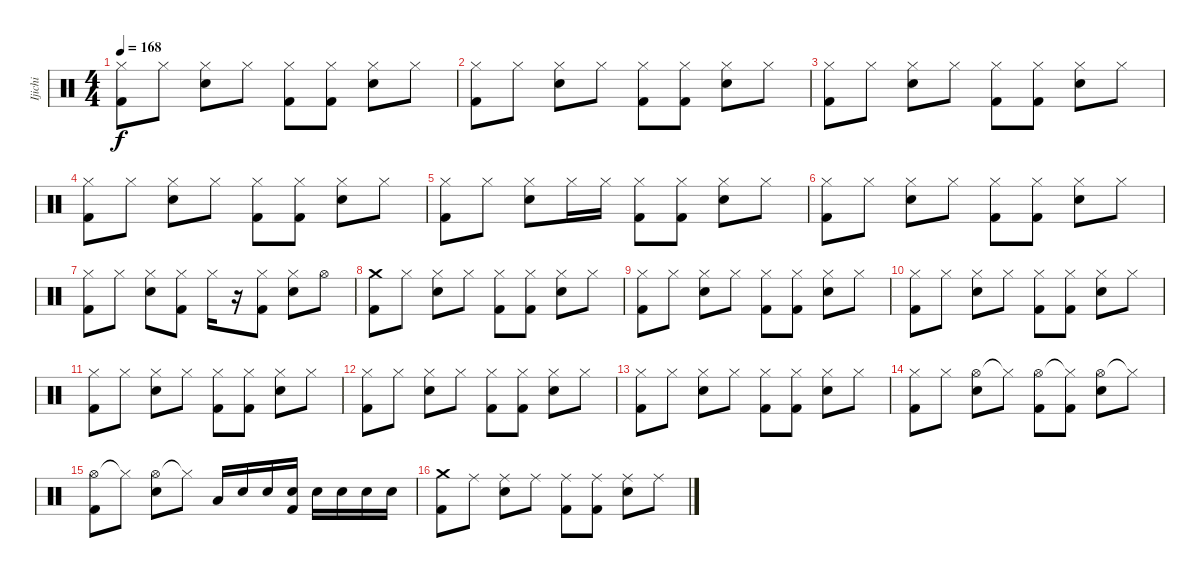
\track ("Ijichi" "Ijichi") {instrument percussion}
\staff {score}
\articulation defaults
\ts (4 4)
\tempo 168
\clef neutral
\ks c
("Hi-Hat (closed)" "Kick (hit) 2").8{dy f} "Hi-Hat (closed)".8 ("Hi-Hat (closed)" "Electric Snare (hit)").8 "Hi-Hat (closed)".8 ("Hi-Hat (closed)" "Kick (hit) 2").8 ("Hi-Hat (closed)" "Kick (hit) 2").8 ("Hi-Hat (closed)" "Electric Snare (hit)").8 "Hi-Hat (closed)".8 |
("Hi-Hat (closed)" "Kick (hit) 2").8 "Hi-Hat (closed)".8 ("Hi-Hat (closed)" "Electric Snare (hit)").8 "Hi-Hat (closed)".8 ("Hi-Hat (closed)" "Kick (hit) 2").8 ("Hi-Hat (closed)" "Kick (hit) 2").8 ("Hi-Hat (closed)" "Electric Snare (hit)").8 "Hi-Hat (closed)".8 |
("Hi-Hat (closed)" "Kick (hit) 2").8 "Hi-Hat (closed)".8 ("Hi-Hat (closed)" "Electric Snare (hit)").8 "Hi-Hat (closed)".8 ("Hi-Hat (closed)" "Kick (hit) 2").8 ("Hi-Hat (closed)" "Kick (hit) 2").8 ("Hi-Hat (closed)" "Electric Snare (hit)").8 "Hi-Hat (closed)".8 |
("Hi-Hat (closed)" "Kick (hit) 2").8 "Hi-Hat (closed)".8 ("Hi-Hat (closed)" "Electric Snare (hit)").8 "Hi-Hat (closed)".8 ("Hi-Hat (closed)" "Kick (hit) 2").8 ("Hi-Hat (closed)" "Kick (hit) 2").8 ("Hi-Hat (closed)" "Electric Snare (hit)").8 "Hi-Hat (closed)".8 |
("Hi-Hat (closed)" "Kick (hit) 2").8 "Hi-Hat (closed)".8 ("Hi-Hat (closed)" "Electric Snare (hit)").8 "Hi-Hat (closed)".16 "Hi-Hat (closed)".16 ("Hi-Hat (closed)" "Kick (hit) 2").8 ("Hi-Hat (closed)" "Kick (hit) 2").8 ("Hi-Hat (closed)" "Electric Snare (hit)").8 "Hi-Hat (closed)".8 |
("Hi-Hat (closed)" "Kick (hit) 2").8 "Hi-Hat (closed)".8 ("Hi-Hat (closed)" "Electric Snare (hit)").8 "Hi-Hat (closed)".8 ("Hi-Hat (closed)" "Kick (hit) 2").8 ("Hi-Hat (closed)" "Kick (hit) 2").8 ("Hi-Hat (closed)" "Electric Snare (hit)").8 "Hi-Hat (closed)".8 |
("Hi-Hat (closed)" "Kick (hit) 2").8 "Hi-Hat (closed)".8 ("Hi-Hat (closed)" "Electric Snare (hit)").8 ("Hi-Hat (closed)" "Kick (hit) 2").8 "Hi-Hat (closed)".16 r.16 ("Hi-Hat (closed)" "Kick (hit) 2").8 ("Hi-Hat (closed)" "Electric Snare (hit)").8 "Hi-Hat (open)".8 |
("Crash medium (hit)" "Kick (hit) 2").8 "Hi-Hat (closed)".8 ("Hi-Hat (closed)" "Electric Snare (hit)").8 "Hi-Hat (closed)".8 ("Hi-Hat (closed)" "Kick (hit) 2").8 ("Hi-Hat (closed)" "Kick (hit) 2").8 ("Hi-Hat (closed)" "Electric Snare (hit)").8 "Hi-Hat (closed)".8 |
("Hi-Hat (closed)" "Kick (hit) 2").8 "Hi-Hat (closed)".8 ("Hi-Hat (closed)" "Electric Snare (hit)").8 "Hi-Hat (closed)".8 ("Hi-Hat (closed)" "Kick (hit) 2").8 ("Hi-Hat (closed)" "Kick (hit) 2").8 ("Hi-Hat (closed)" "Electric Snare (hit)").8 "Hi-Hat (closed)".8 |
("Hi-Hat (closed)" "Kick (hit) 2").8 "Hi-Hat (closed)".8 ("Hi-Hat (closed)" "Electric Snare (hit)").8 "Hi-Hat (closed)".8 ("Hi-Hat (closed)" "Kick (hit) 2").8 ("Hi-Hat (closed)" "Kick (hit) 2").8 ("Hi-Hat (closed)" "Electric Snare (hit)").8 "Hi-Hat (closed)".8 |
("Hi-Hat (closed)" "Kick (hit) 2").8 "Hi-Hat (closed)".8 ("Hi-Hat (closed)" "Electric Snare (hit)").8 "Hi-Hat (closed)".8 ("Hi-Hat (closed)" "Kick (hit) 2").8 ("Hi-Hat (closed)" "Kick (hit) 2").8 ("Hi-Hat (closed)" "Electric Snare (hit)").8 "Hi-Hat (closed)".8 |
("Hi-Hat (closed)" "Kick (hit) 2").8 "Hi-Hat (closed)".8 ("Hi-Hat (closed)" "Electric Snare (hit)").8 "Hi-Hat (closed)".8 ("Hi-Hat (closed)" "Kick (hit) 2").8 ("Hi-Hat (closed)" "Kick (hit) 2").8 ("Hi-Hat (closed)" "Electric Snare (hit)").8 "Hi-Hat (closed)".8 |
("Hi-Hat (closed)" "Kick (hit) 2").8 "Hi-Hat (closed)".8 ("Hi-Hat (closed)" "Electric Snare (hit)").8 "Hi-Hat (closed)".8 ("Hi-Hat (closed)" "Kick (hit) 2").8 ("Hi-Hat (closed)" "Kick (hit) 2").8 ("Hi-Hat (closed)" "Electric Snare (hit)").8 "Hi-Hat (closed)".8 |
("Hi-Hat (closed)" "Kick (hit) 2").8 "Hi-Hat (closed)".8 ("Hi-Hat (open)" "Electric Snare (hit)").8 "Hi-Hat (closed)"{t}.8 ("Hi-Hat (open)" "Kick (hit) 2").8 ("Hi-Hat (closed)"{t} "Kick (hit) 2").8 ("Hi-Hat (open)" "Electric Snare (hit)").8 "Hi-Hat (closed)"{t}.8 |
("Hi-Hat (open)" "Kick (hit) 2").8 "Hi-Hat (closed)"{t}.8 ("Hi-Hat (open)" "Electric Snare (hit)").8 "Hi-Hat (closed)"{t}.8 "Low Floor Tom (hit)".16 "Electric Snare (hit)".16 "Electric Snare (hit)".16 ("Electric Snare (hit)" "Kick (hit) 2").16 "Electric Snare (hit)".16 "Electric Snare (hit)".16 "Electric Snare (hit)".16 "Electric Snare (hit)".16 |
("Crash medium (hit)" "Kick (hit) 2").8 "Ride (middle)".8 ("Ride (middle)" "Electric Snare (hit)").8 "Ride (middle)".8 ("Ride (middle)" "Kick (hit) 2").8 ("Ride (middle)" "Kick (hit) 2").8 ("Ride (middle)" "Electric Snare (hit)").8 "Ride (middle)".8
